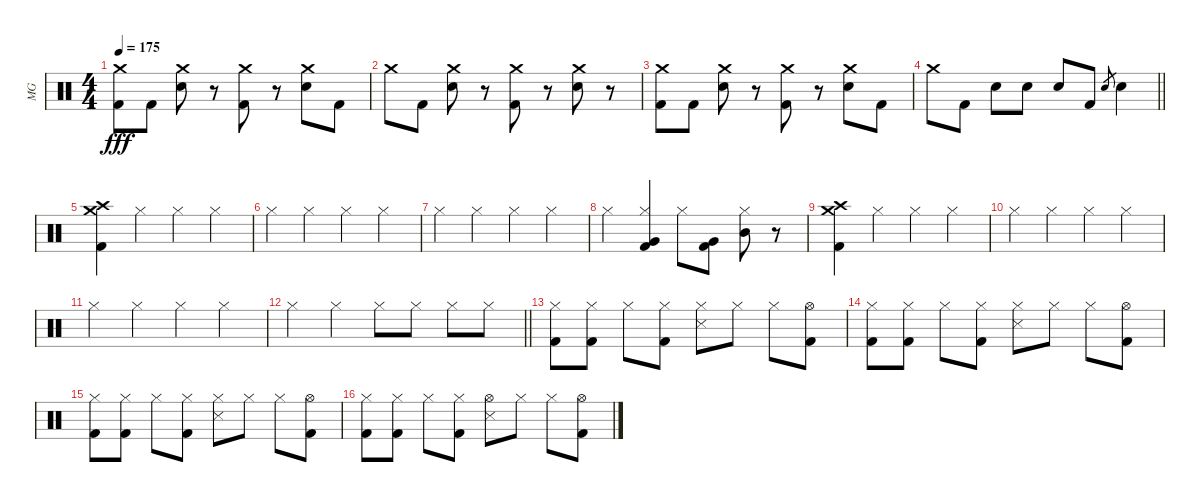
\track ("MG" "MG") {instrument percussion}
\staff {score}
\articulation defaults
\ts (4 4)
\tempo 175
\clef neutral
\ks c
("Crash medium (hit)" "Kick (hit) 2").8{dy fff} "Kick (hit) 2".8 ("Crash medium (hit)" "Electric Snare (hit)").8 r.8 ("Crash medium (hit)" "Kick (hit) 2").8 r.8 ("Crash medium (hit)" "Electric Snare (hit)").8 "Kick (hit) 2".8 |
"Crash medium (hit)".8 "Kick (hit) 2".8 ("Crash medium (hit)" "Electric Snare (hit)").8 r.8 ("Crash medium (hit)" "Kick (hit) 2").8 r.8 ("Crash medium (hit)" "Electric Snare (hit)").8 r.8 |
("Crash medium (hit)" "Kick (hit) 2").8 "Kick (hit) 2".8 ("Crash medium (hit)" "Electric Snare (hit)").8 r.8 ("Crash medium (hit)" "Kick (hit) 2").8 r.8 ("Crash medium (hit)" "Electric Snare (hit)").8 "Kick (hit) 2".8 |
\barLineRight lightlight "Crash medium (hit)".8 "Kick (hit) 2".8 "Electric Snare (hit)".8 "Electric Snare (hit)".8 "Electric Snare (hit)".8 "Kick (hit) 2".8 "Electric Snare (hit)".8{gr} "Electric Snare (hit)".4
|
\section ("" "")
("Crash medium (hit)" "Crash high (hit)" "Kick (hit) 2").4 "Hi-Hat (closed)".4 "Hi-Hat (closed)".4 "Hi-Hat (closed)".4 |
"Hi-Hat (closed)".4 "Hi-Hat (closed)".4 "Hi-Hat (closed)".4 "Hi-Hat (closed)".4 |
"Hi-Hat (closed)".4 "Hi-Hat (closed)".4 "Hi-Hat (closed)".4 "Hi-Hat (closed)".4 |
"Hi-Hat (closed)".4 ("Hi-Hat (closed)" "Very Low Tom (hit)" "Kick (hit) 2").4 "Hi-Hat (closed)".8 ("Very Low Tom (hit)" "Kick (hit) 2").8 ("Hi-Hat (closed)" "Mid Tom (hit)").8 r.8 |
("Crash medium (hit)" "Crash high (hit)" "Kick (hit) 2").4 "Hi-Hat (closed)".4 "Hi-Hat (closed)".4 "Hi-Hat (closed)".4 |
"Hi-Hat (closed)".4 "Hi-Hat (closed)".4 "Hi-Hat (closed)".4 "Hi-Hat (closed)".4 |
"Hi-Hat (closed)".4 "Hi-Hat (closed)".4 "Hi-Hat (closed)".4 "Hi-Hat (closed)".4 |
\barLineRight lightlight "Hi-Hat (closed)".4 "Hi-Hat (closed)".4 "Hi-Hat (closed)".8 "Hi-Hat (closed)".8 "Hi-Hat (closed)".8 "Hi-Hat (closed)".8
|
\section ("" "")
("Hi-Hat (closed)" "Kick (hit) 2").8 ("Hi-Hat (closed)" "Kick (hit) 2").8 "Hi-Hat (closed)".8 ("Hi-Hat (closed)" "Kick (hit) 2").8 ("Hi-Hat (closed)" "Snare (side stick) 3").8 "Hi-Hat (closed)".8 "Hi-Hat (closed)".8 ("Hi-Hat (open)" "Kick (hit) 2").8 |
("Hi-Hat (closed)" "Kick (hit) 2").8 ("Hi-Hat (closed)" "Kick (hit) 2").8 "Hi-Hat (closed)".8 ("Hi-Hat (closed)" "Kick (hit) 2").8 ("Hi-Hat (closed)" "Snare (side stick) 3").8 "Hi-Hat (closed)".8 "Hi-Hat (closed)".8 ("Hi-Hat (open)" "Kick (hit) 2").8 |
("Hi-Hat (closed)" "Kick (hit) 2").8 ("Hi-Hat (closed)" "Kick (hit) 2").8 "Hi-Hat (closed)".8 ("Hi-Hat (closed)" "Kick (hit) 2").8 ("Hi-Hat (closed)" "Snare (side stick) 3").8 "Hi-Hat (closed)".8 "Hi-Hat (closed)".8 ("Hi-Hat (open)" "Kick (hit) 2").8 |
("Hi-Hat (closed)" "Kick (hit) 2").8 ("Hi-Hat (closed)" "Kick (hit) 2").8 "Hi-Hat (closed)".8 ("Hi-Hat (closed)" "Kick (hit) 2").8 ("Hi-Hat (open)" "Snare (side stick) 3").8 "Hi-Hat (closed)".8 "Hi-Hat (closed)".8 ("Hi-Hat (open)" "Kick (hit) 2").8
